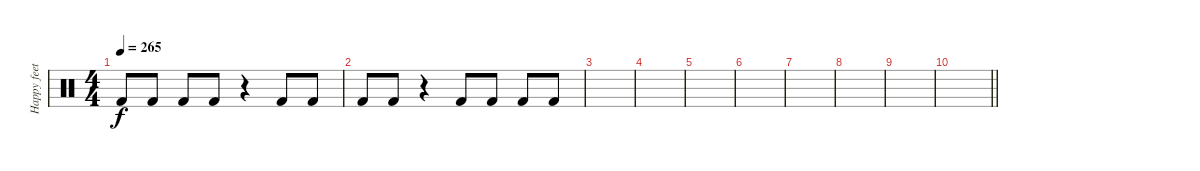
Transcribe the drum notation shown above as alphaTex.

\track ("Happy feet" "Happy feet") {instrument percussion}
\staff {score}
\articulation defaults
\ts (4 4)
\tempo 265
\clef neutral
\ks c "Kick (hit) 2".8{dy f} "Kick (hit) 2".8 "Kick (hit) 2".8 "Kick (hit) 2".8
r.4 "Kick (hit) 2".8 "Kick (hit) 2".8 |
"Kick (hit) 2".8 "Kick (hit) 2".8 r.4 "Kick (hit) 2".8 "Kick (hit) 2".8 "Kick (hit) 2".8 "Kick (hit) 2".8 |
|
|
|
|
|
|
|
\barLineRight lightlight
